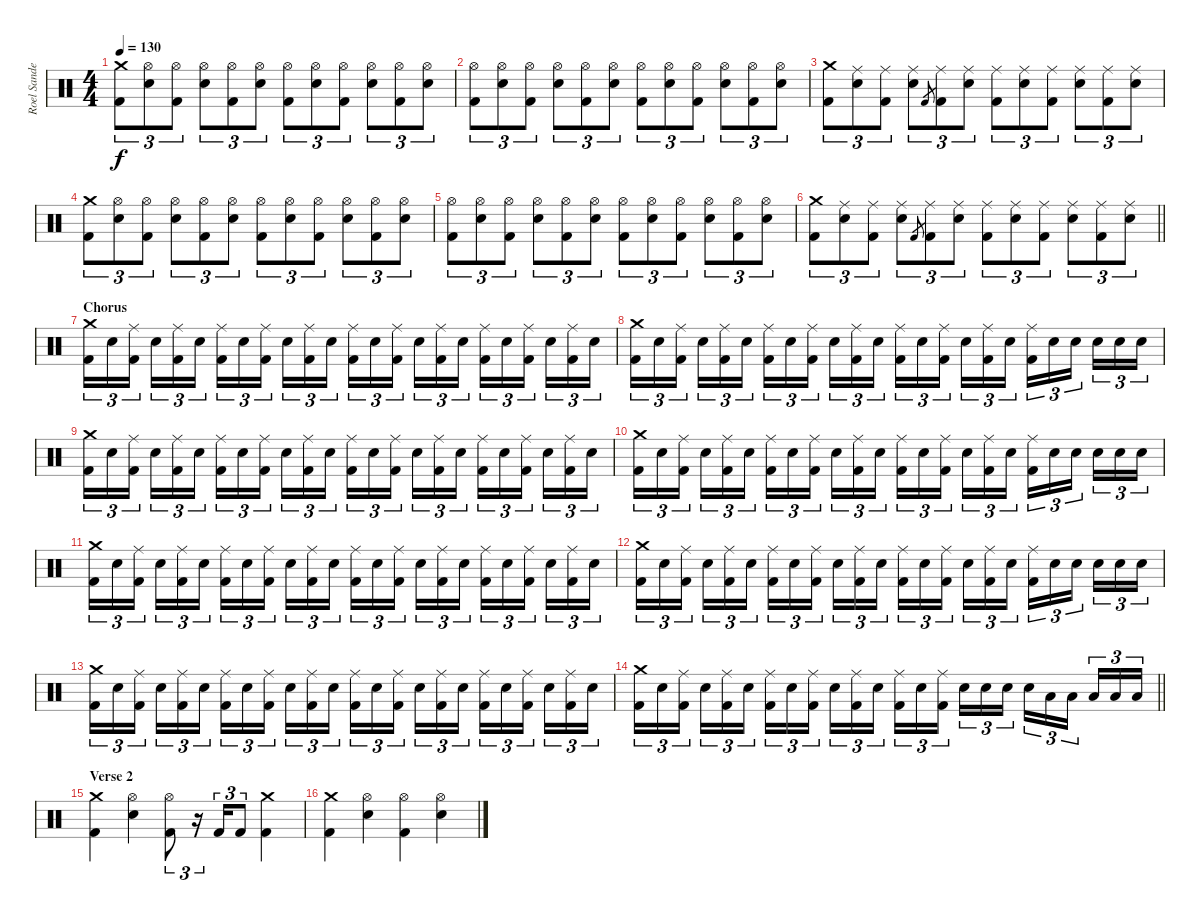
\track ("Roel Sander " "Roel Sande") {instrument percussion}
\staff {score}
\articulation defaults
\ts (4 4)
\tempo 130
\clef neutral
\ks c
("Crash medium (hit)" "Kick (hit) 2").8{tu (3 2) dy f} ("Hi-Hat (open)" "Snare (hit) 2").8{tu (3 2)} ("Hi-Hat (open)" "Kick (hit) 2").8{tu (3 2)} ("Hi-Hat (open)" "Snare (hit) 2").8{tu (3 2)} ("Hi-Hat (open)" "Kick (hit) 2").8{tu (3 2)} ("Hi-Hat (open)" "Snare (hit) 2").8{tu (3 2)} ("Hi-Hat (open)" "Kick (hit) 2").8{tu (3 2)} ("Hi-Hat (open)" "Snare (hit) 2").8{tu (3 2)} ("Hi-Hat (open)" "Kick (hit) 2").8{tu (3 2)} ("Hi-Hat (open)" "Snare (hit) 2").8{tu (3 2)} ("Hi-Hat (open)" "Kick (hit) 2").8{tu (3 2)} ("Hi-Hat (open)" "Snare (hit) 2").8{tu (3 2)} |
("Hi-Hat (open)" "Kick (hit) 2").8{tu (3 2)} ("Hi-Hat (open)" "Snare (hit) 2").8{tu (3 2)} ("Hi-Hat (open)" "Kick (hit) 2").8{tu (3 2)} ("Hi-Hat (open)" "Snare (hit) 2").8{tu (3 2)} ("Hi-Hat (open)" "Kick (hit) 2").8{tu (3 2)} ("Hi-Hat (open)" "Snare (hit) 2").8{tu (3 2)} ("Hi-Hat (open)" "Kick (hit) 2").8{tu (3 2)} ("Hi-Hat (open)" "Snare (hit) 2").8{tu (3 2)} ("Hi-Hat (open)" "Kick (hit) 2").8{tu (3 2)} ("Hi-Hat (open)" "Snare (hit) 2").8{tu (3 2)} ("Hi-Hat (open)" "Kick (hit) 2").8{tu (3 2)} ("Hi-Hat (open)" "Snare (hit) 2").8{tu (3 2)} |
("Crash medium (hit)" "Kick (hit) 2").8{tu (3 2)} ("Ride (middle)" "Snare (hit) 2").8{tu (3 2)} ("Ride (middle)" "Kick (hit) 2").8{tu (3 2)} ("Ride (middle)" "Snare (hit) 2").8{tu (3 2)} "Kick (hit) 2".8{gr} ("Ride (middle)" "Kick (hit) 2").8{tu (3 2)} ("Ride (middle)" "Snare (hit) 2").8{tu (3 2)} ("Ride (middle)" "Kick (hit) 2").8{tu (3 2)} ("Ride (middle)" "Snare (hit) 2").8{tu (3 2)} ("Ride (middle)" "Kick (hit) 2").8{tu (3 2)} ("Ride (middle)" "Snare (hit) 2").8{tu (3 2)} ("Ride (middle)" "Kick (hit) 2").8{tu (3 2)} ("Ride (middle)" "Snare (hit) 2").8{tu (3 2)} |
("Crash medium (hit)" "Kick (hit) 2").8{tu (3 2)} ("Hi-Hat (open)" "Snare (hit) 2").8{tu (3 2)} ("Hi-Hat (open)" "Kick (hit) 2").8{tu (3 2)} ("Hi-Hat (open)" "Snare (hit) 2").8{tu (3 2)} ("Hi-Hat (open)" "Kick (hit) 2").8{tu (3 2)} ("Hi-Hat (open)" "Snare (hit) 2").8{tu (3 2)} ("Hi-Hat (open)" "Kick (hit) 2").8{tu (3 2)} ("Hi-Hat (open)" "Snare (hit) 2").8{tu (3 2)} ("Hi-Hat (open)" "Kick (hit) 2").8{tu (3 2)} ("Hi-Hat (open)" "Snare (hit) 2").8{tu (3 2)} ("Hi-Hat (open)" "Kick (hit) 2").8{tu (3 2)} ("Hi-Hat (open)" "Snare (hit) 2").8{tu (3 2)} |
("Hi-Hat (open)" "Kick (hit) 2").8{tu (3 2)} ("Hi-Hat (open)" "Snare (hit) 2").8{tu (3 2)} ("Hi-Hat (open)" "Kick (hit) 2").8{tu (3 2)} ("Hi-Hat (open)" "Snare (hit) 2").8{tu (3 2)} ("Hi-Hat (open)" "Kick (hit) 2").8{tu (3 2)} ("Hi-Hat (open)" "Snare (hit) 2").8{tu (3 2)} ("Hi-Hat (open)" "Kick (hit) 2").8{tu (3 2)} ("Hi-Hat (open)" "Snare (hit) 2").8{tu (3 2)} ("Hi-Hat (open)" "Kick (hit) 2").8{tu (3 2)} ("Hi-Hat (open)" "Snare (hit) 2").8{tu (3 2)} ("Hi-Hat (open)" "Kick (hit) 2").8{tu (3 2)} ("Hi-Hat (open)" "Snare (hit) 2").8{tu (3 2)} |
\barLineRight lightlight
("Crash medium (hit)" "Kick (hit) 2").8{tu (3 2)} ("Ride (middle)" "Snare (hit) 2").8{tu (3 2)} ("Ride (middle)" "Kick (hit) 2").8{tu (3 2)} ("Ride (middle)" "Snare (hit) 2").8{tu (3 2)} "Kick (hit) 2".8{gr} ("Ride (middle)" "Kick (hit) 2").8{tu (3 2)} ("Ride (middle)" "Snare (hit) 2").8{tu (3 2)} ("Ride (middle)" "Kick (hit) 2").8{tu (3 2)} ("Ride (middle)" "Snare (hit) 2").8{tu (3 2)} ("Ride (middle)" "Kick (hit) 2").8{tu (3 2)} ("Ride (middle)" "Snare (hit) 2").8{tu (3 2)} ("Ride (middle)" "Kick (hit) 2").8{tu (3 2)} ("Ride (middle)" "Snare (hit) 2").8{tu (3 2)} |
\section ("" "Chorus")
("Crash medium (hit)" "Kick (hit) 2").16{tu (3 2)} "Snare (hit) 2".16{tu (3 2)} ("Ride (middle)" "Kick (hit) 2").16{tu (3 2) beam splitsecondary} "Snare (hit) 2".16{tu (3 2)} ("Ride (middle)" "Kick (hit) 2").16{tu (3 2)} "Snare (hit) 2".16{tu (3 2)} ("Ride (middle)" "Kick (hit) 2").16{tu (3 2)} "Snare (hit) 2".16{tu (3 2)} ("Ride (middle)" "Kick (hit) 2").16{tu (3 2) beam splitsecondary} "Snare (hit) 2".16{tu (3 2)} ("Ride (middle)" "Kick (hit) 2").16{tu (3 2)} "Snare (hit) 2".16{tu (3 2)} ("Ride (middle)" "Kick (hit) 2").16{tu (3 2)} "Snare (hit) 2".16{tu (3 2)} ("Ride (middle)" "Kick (hit) 2").16{tu (3 2) beam splitsecondary} "Snare (hit) 2".16{tu (3 2)} ("Ride (middle)" "Kick (hit) 2").16{tu (3 2)} "Snare (hit) 2".16{tu (3 2)} ("Ride (middle)" "Kick (hit) 2").16{tu (3 2)} "Snare (hit) 2".16{tu (3 2)} ("Ride (middle)" "Kick (hit) 2").16{tu (3 2) beam splitsecondary} "Snare (hit) 2".16{tu (3 2)} ("Ride (middle)" "Kick (hit) 2").16{tu (3 2)} "Snare (hit) 2".16{tu (3 2)} |
("Crash medium (hit)" "Kick (hit) 2").16{tu (3 2)} "Snare (hit) 2".16{tu (3 2)} ("Ride (middle)" "Kick (hit) 2").16{tu (3 2) beam splitsecondary} "Snare (hit) 2".16{tu (3 2)} ("Ride (middle)" "Kick (hit) 2").16{tu (3 2)} "Snare (hit) 2".16{tu (3 2)} ("Ride (middle)" "Kick (hit) 2").16{tu (3 2)} "Snare (hit) 2".16{tu (3 2)} ("Ride (middle)" "Kick (hit) 2").16{tu (3 2) beam splitsecondary} "Snare (hit) 2".16{tu (3 2)} ("Ride (middle)" "Kick (hit) 2").16{tu (3 2)} "Snare (hit) 2".16{tu (3 2)} ("Ride (middle)" "Kick (hit) 2").16{tu (3 2)} "Snare (hit) 2".16{tu (3 2)} ("Ride (middle)" "Kick (hit) 2").16{tu (3 2) beam splitsecondary} "Snare (hit) 2".16{tu (3 2)} ("Ride (middle)" "Kick (hit) 2").16{tu (3 2)} "Snare (hit) 2".16{tu (3 2)} ("Ride (middle)" "Kick (hit) 2").16{tu (3 2)} "Snare (hit) 2".16{tu (3 2)} "Snare (hit) 2".16{tu (3 2) beam splitsecondary} "Snare (hit) 2".16{tu (3 2)} "Snare (hit) 2".16{tu (3 2)} "Snare (hit) 2".16{tu (3 2)} |
("Crash medium (hit)" "Kick (hit) 2").16{tu (3 2)} "Snare (hit) 2".16{tu (3 2)} ("Ride (middle)" "Kick (hit) 2").16{tu (3 2) beam splitsecondary} "Snare (hit) 2".16{tu (3 2)} ("Ride (middle)" "Kick (hit) 2").16{tu (3 2)} "Snare (hit) 2".16{tu (3 2)} ("Ride (middle)" "Kick (hit) 2").16{tu (3 2)} "Snare (hit) 2".16{tu (3 2)} ("Ride (middle)" "Kick (hit) 2").16{tu (3 2) beam splitsecondary} "Snare (hit) 2".16{tu (3 2)} ("Ride (middle)" "Kick (hit) 2").16{tu (3 2)} "Snare (hit) 2".16{tu (3 2)} ("Ride (middle)" "Kick (hit) 2").16{tu (3 2)} "Snare (hit) 2".16{tu (3 2)} ("Ride (middle)" "Kick (hit) 2").16{tu (3 2) beam splitsecondary} "Snare (hit) 2".16{tu (3 2)} ("Ride (middle)" "Kick (hit) 2").16{tu (3 2)} "Snare (hit) 2".16{tu (3 2)} ("Ride (middle)" "Kick (hit) 2").16{tu (3 2)} "Snare (hit) 2".16{tu (3 2)} ("Ride (middle)" "Kick (hit) 2").16{tu (3 2) beam splitsecondary} "Snare (hit) 2".16{tu (3 2)} ("Ride (middle)" "Kick (hit) 2").16{tu (3 2)} "Snare (hit) 2".16{tu (3 2)} |
("Crash medium (hit)" "Kick (hit) 2").16{tu (3 2)} "Snare (hit) 2".16{tu (3 2)} ("Ride (middle)" "Kick (hit) 2").16{tu (3 2) beam splitsecondary} "Snare (hit) 2".16{tu (3 2)} ("Ride (middle)" "Kick (hit) 2").16{tu (3 2)} "Snare (hit) 2".16{tu (3 2)} ("Ride (middle)" "Kick (hit) 2").16{tu (3 2)} "Snare (hit) 2".16{tu (3 2)} ("Ride (middle)" "Kick (hit) 2").16{tu (3 2) beam splitsecondary} "Snare (hit) 2".16{tu (3 2)} ("Ride (middle)" "Kick (hit) 2").16{tu (3 2)} "Snare (hit) 2".16{tu (3 2)} ("Ride (middle)" "Kick (hit) 2").16{tu (3 2)} "Snare (hit) 2".16{tu (3 2)} ("Ride (middle)" "Kick (hit) 2").16{tu (3 2) beam splitsecondary} "Snare (hit) 2".16{tu (3 2)} ("Ride (middle)" "Kick (hit) 2").16{tu (3 2)} "Snare (hit) 2".16{tu (3 2)} ("Ride (middle)" "Kick (hit) 2").16{tu (3 2)} "Snare (hit) 2".16{tu (3 2)} "Snare (hit) 2".16{tu (3 2) beam splitsecondary} "Snare (hit) 2".16{tu (3 2)} "Snare (hit) 2".16{tu (3 2)} "Snare (hit) 2".16{tu (3 2)} |
("Crash medium (hit)" "Kick (hit) 2").16{tu (3 2)} "Snare (hit) 2".16{tu (3 2)} ("Ride (middle)" "Kick (hit) 2").16{tu (3 2) beam splitsecondary} "Snare (hit) 2".16{tu (3 2)} ("Ride (middle)" "Kick (hit) 2").16{tu (3 2)} "Snare (hit) 2".16{tu (3 2)} ("Ride (middle)" "Kick (hit) 2").16{tu (3 2)} "Snare (hit) 2".16{tu (3 2)} ("Ride (middle)" "Kick (hit) 2").16{tu (3 2) beam splitsecondary} "Snare (hit) 2".16{tu (3 2)} ("Ride (middle)" "Kick (hit) 2").16{tu (3 2)} "Snare (hit) 2".16{tu (3 2)} ("Ride (middle)" "Kick (hit) 2").16{tu (3 2)} "Snare (hit) 2".16{tu (3 2)} ("Ride (middle)" "Kick (hit) 2").16{tu (3 2) beam splitsecondary} "Snare (hit) 2".16{tu (3 2)} ("Ride (middle)" "Kick (hit) 2").16{tu (3 2)} "Snare (hit) 2".16{tu (3 2)} ("Ride (middle)" "Kick (hit) 2").16{tu (3 2)} "Snare (hit) 2".16{tu (3 2)} ("Ride (middle)" "Kick (hit) 2").16{tu (3 2) beam splitsecondary} "Snare (hit) 2".16{tu (3 2)} ("Ride (middle)" "Kick (hit) 2").16{tu (3 2)} "Snare (hit) 2".16{tu (3 2)} |
("Crash medium (hit)" "Kick (hit) 2").16{tu (3 2)} "Snare (hit) 2".16{tu (3 2)} ("Ride (middle)" "Kick (hit) 2").16{tu (3 2) beam splitsecondary} "Snare (hit) 2".16{tu (3 2)} ("Ride (middle)" "Kick (hit) 2").16{tu (3 2)} "Snare (hit) 2".16{tu (3 2)} ("Ride (middle)" "Kick (hit) 2").16{tu (3 2)} "Snare (hit) 2".16{tu (3 2)} ("Ride (middle)" "Kick (hit) 2").16{tu (3 2) beam splitsecondary} "Snare (hit) 2".16{tu (3 2)} ("Ride (middle)" "Kick (hit) 2").16{tu (3 2)} "Snare (hit) 2".16{tu (3 2)} ("Ride (middle)" "Kick (hit) 2").16{tu (3 2)} "Snare (hit) 2".16{tu (3 2)} ("Ride (middle)" "Kick (hit) 2").16{tu (3 2) beam splitsecondary} "Snare (hit) 2".16{tu (3 2)} ("Ride (middle)" "Kick (hit) 2").16{tu (3 2)} "Snare (hit) 2".16{tu (3 2)} ("Ride (middle)" "Kick (hit) 2").16{tu (3 2)} "Snare (hit) 2".16{tu (3 2)} "Snare (hit) 2".16{tu (3 2) beam splitsecondary} "Snare (hit) 2".16{tu (3 2)} "Snare (hit) 2".16{tu (3 2)} "Snare (hit) 2".16{tu (3 2)} |
("Crash medium (hit)" "Kick (hit) 2").16{tu (3 2)} "Snare (hit) 2".16{tu (3 2)} ("Ride (middle)" "Kick (hit) 2").16{tu (3 2) beam splitsecondary} "Snare (hit) 2".16{tu (3 2)} ("Ride (middle)" "Kick (hit) 2").16{tu (3 2)} "Snare (hit) 2".16{tu (3 2)} ("Ride (middle)" "Kick (hit) 2").16{tu (3 2)} "Snare (hit) 2".16{tu (3 2)} ("Ride (middle)" "Kick (hit) 2").16{tu (3 2) beam splitsecondary} "Snare (hit) 2".16{tu (3 2)} ("Ride (middle)" "Kick (hit) 2").16{tu (3 2)} "Snare (hit) 2".16{tu (3 2)} ("Ride (middle)" "Kick (hit) 2").16{tu (3 2)} "Snare (hit) 2".16{tu (3 2)} ("Ride (middle)" "Kick (hit) 2").16{tu (3 2) beam splitsecondary} "Snare (hit) 2".16{tu (3 2)} ("Ride (middle)" "Kick (hit) 2").16{tu (3 2)} "Snare (hit) 2".16{tu (3 2)} ("Ride (middle)" "Kick (hit) 2").16{tu (3 2)} "Snare (hit) 2".16{tu (3 2)} ("Ride (middle)" "Kick (hit) 2").16{tu (3 2) beam splitsecondary} "Snare (hit) 2".16{tu (3 2)} ("Ride (middle)" "Kick (hit) 2").16{tu (3 2)} "Snare (hit) 2".16{tu (3 2)} |
\barLineRight lightlight
("Crash medium (hit)" "Kick (hit) 2").16{tu (3 2)} "Snare (hit) 2".16{tu (3 2)} ("Ride (middle)" "Kick (hit) 2").16{tu (3 2) beam splitsecondary} "Snare (hit) 2".16{tu (3 2)} ("Ride (middle)" "Kick (hit) 2").16{tu (3 2)} "Snare (hit) 2".16{tu (3 2)} ("Ride (middle)" "Kick (hit) 2").16{tu (3 2)} "Snare (hit) 2".16{tu (3 2)} ("Ride (middle)" "Kick (hit) 2").16{tu (3 2) beam splitsecondary} "Snare (hit) 2".16{tu (3 2)} ("Ride (middle)" "Kick (hit) 2").16{tu (3 2)} "Snare (hit) 2".16{tu (3 2)} ("Ride (middle)" "Kick (hit) 2").16{tu (3 2)} "Snare (hit) 2".16{tu (3 2)} ("Ride (middle)" "Kick (hit) 2").16{tu (3 2) beam splitsecondary} "Snare (hit) 2".16{tu (3 2)} "Snare (hit) 2".16{tu (3 2)} "Snare (hit) 2".16{tu (3 2)} "Snare (hit) 2".16{tu (3 2)} "Low Tom (hit)".16{tu (3 2)} "Low Tom (hit)".16{tu (3 2) beam splitsecondary} "Low Tom (hit)".16{tu (3 2)} "Low Tom (hit)".16{tu (3 2)} "Low Tom (hit)".16{tu (3 2)} |
\section ("" "Verse 2")
("Crash medium (hit)" "Kick (hit) 2").4 ("Hi-Hat (open)" "Snare (hit) 2").4 ("Hi-Hat (open)" "Kick (hit) 2").8{tu (3 2)} r.16{tu (3 2)} "Kick (hit) 2".16{tu (3 2)} "Kick (hit) 2".8{tu (3 2)} ("Crash medium (hit)" "Kick (hit) 2").4 |
("Crash medium (hit)" "Kick (hit) 2").4 ("Hi-Hat (open)" "Snare (hit) 2").4 ("Hi-Hat (open)" "Kick (hit) 2").4 ("Hi-Hat (open)" "Snare (hit) 2").4
